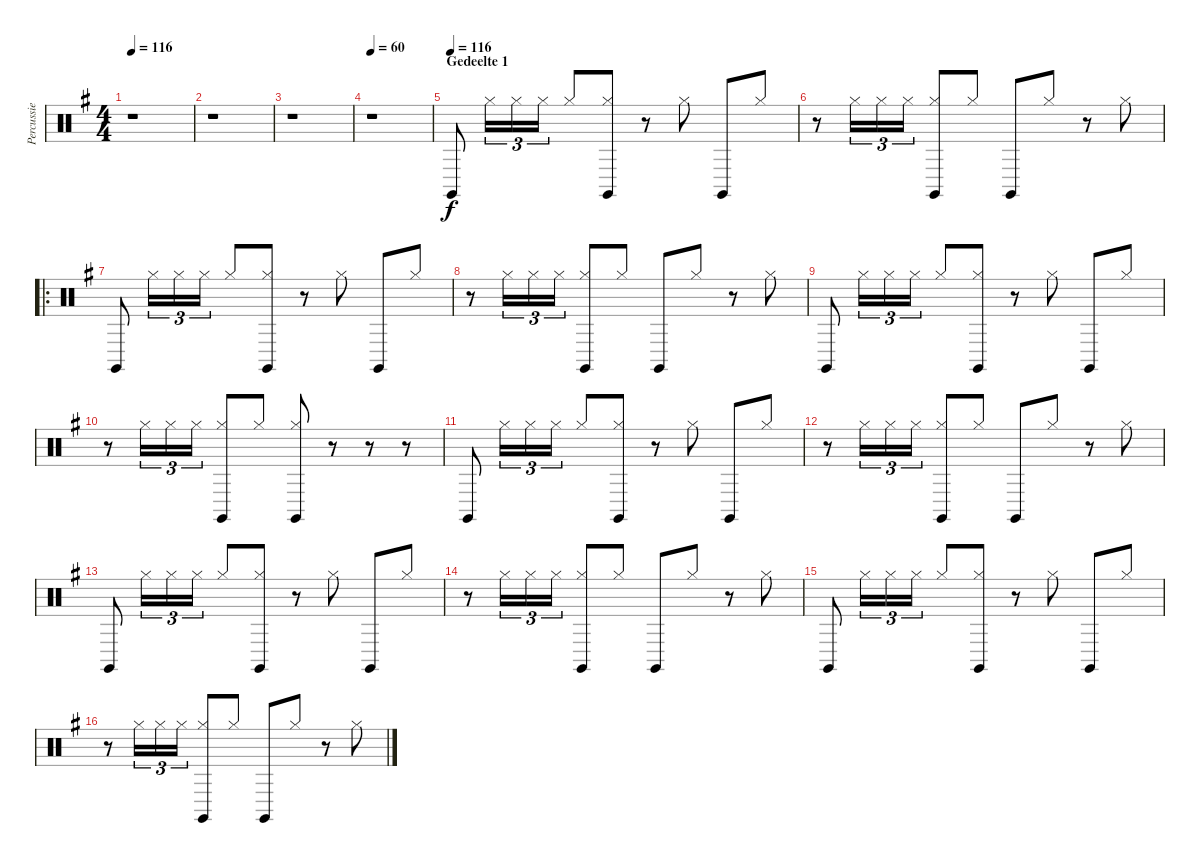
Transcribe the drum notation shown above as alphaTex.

\track ("Percussie" "Percussie") {instrument percussion}
\staff {score}
\articulation defaults
\ts (4 4)
\tempo 116
\clef neutral
\ks g
r.1{dy f} |
r.1 |
r.1 |
\tempo 60
r.1 |
\section ("" "Gedeelte 1")
\tempo (116)
"Claves (hit)".8 "Hi-Hat (closed)".16{tu (3 2)} "Hi-Hat (closed)".16{tu (3 2)} "Hi-Hat (closed)".16{tu (3 2)} "Hi-Hat (closed)".8 ("Hi-Hat (closed)" "Claves (hit)").8 r.8 "Hi-Hat (closed)".8 "Claves (hit)".8 "Hi-Hat (closed)".8 |
r.8 "Hi-Hat (closed)".16{tu (3 2)} "Hi-Hat (closed)".16{tu (3 2)} "Hi-Hat (closed)".16{tu (3 2)} ("Hi-Hat (closed)" "Claves (hit)").8 "Hi-Hat (closed)".8 "Claves (hit)".8 "Hi-Hat (closed)".8 r.8 "Hi-Hat (closed)".8 |
\ro "Claves (hit)".8 "Hi-Hat (closed)".16{tu (3 2)} "Hi-Hat (closed)".16{tu (3 2)} "Hi-Hat (closed)".16{tu (3 2)} "Hi-Hat (closed)".8
("Hi-Hat (closed)" "Claves (hit)").8 r.8 "Hi-Hat (closed)".8 "Claves (hit)".8 "Hi-Hat (closed)".8 |
r.8 "Hi-Hat (closed)".16{tu (3 2)} "Hi-Hat (closed)".16{tu (3 2)} "Hi-Hat (closed)".16{tu (3 2)} ("Hi-Hat (closed)" "Claves (hit)").8 "Hi-Hat (closed)".8 "Claves (hit)".8 "Hi-Hat (closed)".8 r.8 "Hi-Hat (closed)".8 |
"Claves (hit)".8 "Hi-Hat (closed)".16{tu (3 2)} "Hi-Hat (closed)".16{tu (3 2)} "Hi-Hat (closed)".16{tu (3 2)} "Hi-Hat (closed)".8 ("Hi-Hat (closed)" "Claves (hit)").8 r.8 "Hi-Hat (closed)".8 "Claves (hit)".8 "Hi-Hat (closed)".8 |
r.8 "Hi-Hat (closed)".16{tu (3 2)} "Hi-Hat (closed)".16{tu (3 2)} "Hi-Hat (closed)".16{tu (3 2)} ("Hi-Hat (closed)" "Claves (hit)").8 "Hi-Hat (closed)".8 ("Hi-Hat (closed)" "Claves (hit)").8 r.8 r.8 r.8 |
"Claves (hit)".8 "Hi-Hat (closed)".16{tu (3 2)} "Hi-Hat (closed)".16{tu (3 2)} "Hi-Hat (closed)".16{tu (3 2)} "Hi-Hat (closed)".8 ("Hi-Hat (closed)" "Claves (hit)").8 r.8 "Hi-Hat (closed)".8 "Claves (hit)".8 "Hi-Hat (closed)".8 |
r.8 "Hi-Hat (closed)".16{tu (3 2)} "Hi-Hat (closed)".16{tu (3 2)} "Hi-Hat (closed)".16{tu (3 2)} ("Hi-Hat (closed)" "Claves (hit)").8 "Hi-Hat (closed)".8 "Claves (hit)".8 "Hi-Hat (closed)".8 r.8 "Hi-Hat (closed)".8 |
"Claves (hit)".8 "Hi-Hat (closed)".16{tu (3 2)} "Hi-Hat (closed)".16{tu (3 2)} "Hi-Hat (closed)".16{tu (3 2)} "Hi-Hat (closed)".8 ("Hi-Hat (closed)" "Claves (hit)").8 r.8 "Hi-Hat (closed)".8 "Claves (hit)".8 "Hi-Hat (closed)".8 |
r.8 "Hi-Hat (closed)".16{tu (3 2)} "Hi-Hat (closed)".16{tu (3 2)} "Hi-Hat (closed)".16{tu (3 2)} ("Hi-Hat (closed)" "Claves (hit)").8 "Hi-Hat (closed)".8 "Claves (hit)".8 "Hi-Hat (closed)".8 r.8 "Hi-Hat (closed)".8 |
"Claves (hit)".8 "Hi-Hat (closed)".16{tu (3 2)} "Hi-Hat (closed)".16{tu (3 2)} "Hi-Hat (closed)".16{tu (3 2)} "Hi-Hat (closed)".8 ("Hi-Hat (closed)" "Claves (hit)").8 r.8 "Hi-Hat (closed)".8 "Claves (hit)".8 "Hi-Hat (closed)".8 |
r.8 "Hi-Hat (closed)".16{tu (3 2)} "Hi-Hat (closed)".16{tu (3 2)} "Hi-Hat (closed)".16{tu (3 2)} ("Hi-Hat (closed)" "Claves (hit)").8 "Hi-Hat (closed)".8 "Claves (hit)".8 "Hi-Hat (closed)".8 r.8 "Hi-Hat (closed)".8
